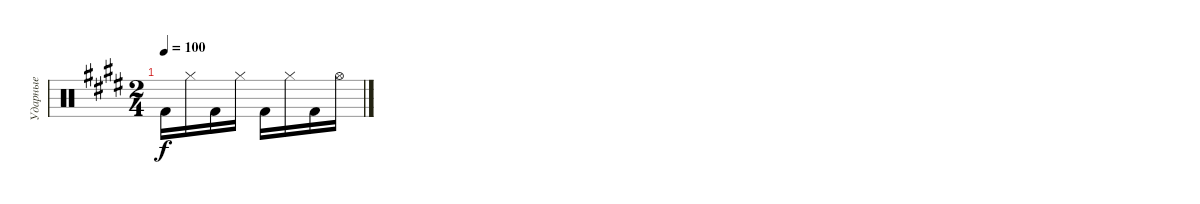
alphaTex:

\track ("Ударные" "Ударные") {instrument percussion}
\staff {score}
\articulation defaults
\ts (2 4)
\tempo 100
\clef neutral
\ks c#minor "Kick (hit) 2".16{dy f} "Hi-Hat (closed)".16 "Kick (hit) 2".16 "Hi-Hat (closed)".16 "Kick (hit) 2".16 "Hi-Hat (closed)".16 "Kick (hit) 2".16 "Hi-Hat (open)".16
